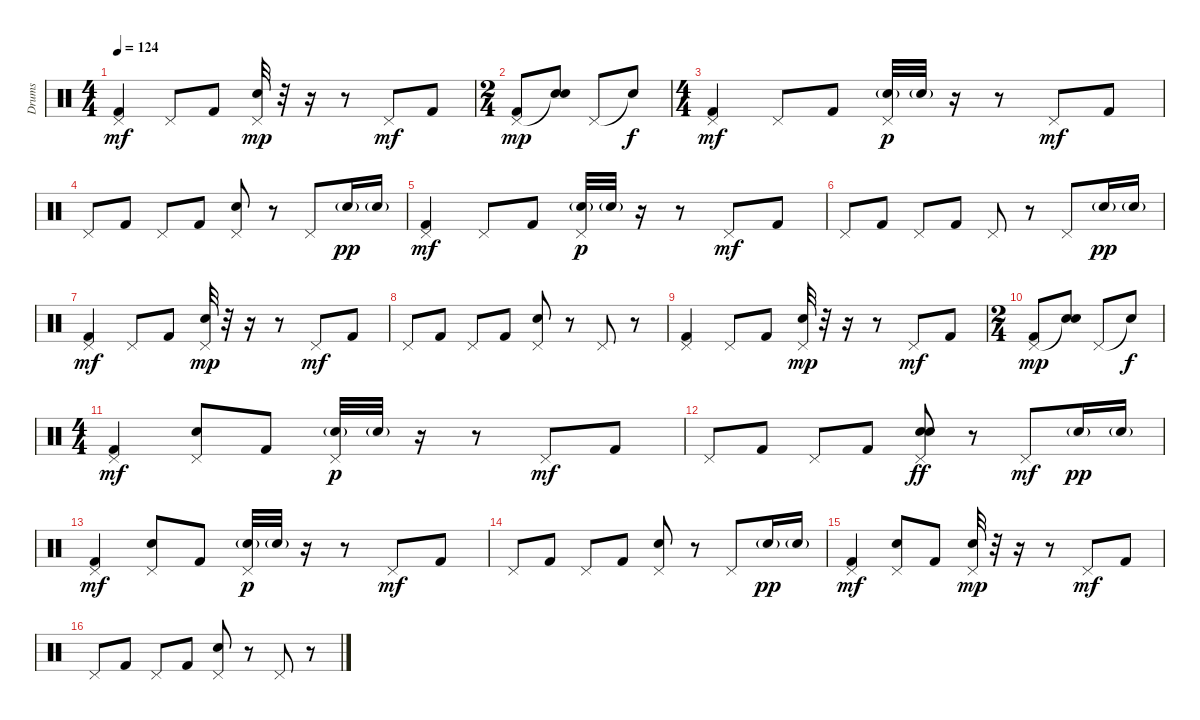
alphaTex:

\track ("Drums" "Drums") {instrument percussion}
\staff {score}
\articulation defaults
\ts (4 4)
\tempo 124
\clef neutral
\ks c
("Pedal Hi-Hat (hit)" "Kick (hit) 2").4{dy mf} "Pedal Hi-Hat (hit)".8 "Kick (hit) 2".8 ("Pedal Hi-Hat (hit)" "Electric Snare (hit)").32{dy mp} r.32 r.16 r.8 "Pedal Hi-Hat (hit)".8{dy mf} "Kick (hit) 2".8 |
\ts (2 4)
("Pedal Hi-Hat (hit)" "Kick (hit) 2").8{dy mp} ("Snare (hit)"{t} "Electric Snare (hit)").8 "Pedal Hi-Hat (hit)".8 "Snare (hit)"{t}.8{dy f} |
\ts (4 4)
("Pedal Hi-Hat (hit)" "Kick (hit) 2").4{dy mf} "Pedal Hi-Hat (hit)".8 "Kick (hit) 2".8 ("Pedal Hi-Hat (hit)" "Electric Snare (hit)"{g}).32{dy p} "Electric Snare (hit)"{g}.32 r.16 r.8 "Pedal Hi-Hat (hit)".8{dy mf} "Kick (hit) 2".8 |
"Pedal Hi-Hat (hit)".8 "Kick (hit) 2".8 "Pedal Hi-Hat (hit)".8 "Kick (hit) 2".8 ("Pedal Hi-Hat (hit)" "Electric Snare (hit)").8 r.8 "Pedal Hi-Hat (hit)".8 "Electric Snare (hit)"{g}.16{dy pp} "Electric Snare (hit)"{g}.16 |
("Pedal Hi-Hat (hit)" "Kick (hit) 2").4{dy mf} "Pedal Hi-Hat (hit)".8 "Kick (hit) 2".8 ("Pedal Hi-Hat (hit)" "Electric Snare (hit)"{g}).32{dy p} "Electric Snare (hit)"{g}.32 r.16 r.8 "Pedal Hi-Hat (hit)".8{dy mf} "Kick (hit) 2".8 |
"Pedal Hi-Hat (hit)".8 "Kick (hit) 2".8 "Pedal Hi-Hat (hit)".8 "Kick (hit) 2".8 "Pedal Hi-Hat (hit)".8 r.8 "Pedal Hi-Hat (hit)".8 "Electric Snare (hit)"{g}.16{dy pp} "Electric Snare (hit)"{g}.16 |
("Pedal Hi-Hat (hit)" "Kick (hit) 2").4{dy mf} "Pedal Hi-Hat (hit)".8 "Kick (hit) 2".8 ("Pedal Hi-Hat (hit)" "Electric Snare (hit)").32{dy mp} r.32 r.16 r.8 "Pedal Hi-Hat (hit)".8{dy mf} "Kick (hit) 2".8 |
"Pedal Hi-Hat (hit)".8 "Kick (hit) 2".8 "Pedal Hi-Hat (hit)".8 "Kick (hit) 2".8 ("Pedal Hi-Hat (hit)" "Electric Snare (hit)").8 r.8 "Pedal Hi-Hat (hit)".8 r.8 |
("Pedal Hi-Hat (hit)" "Kick (hit) 2").4 "Pedal Hi-Hat (hit)".8 "Kick (hit) 2".8 ("Pedal Hi-Hat (hit)" "Electric Snare (hit)").32{dy mp} r.32 r.16 r.8 "Pedal Hi-Hat (hit)".8{dy mf} "Kick (hit) 2".8 |
\ts (2 4)
("Pedal Hi-Hat (hit)" "Kick (hit) 2").8{dy mp} ("Snare (hit)"{t} "Electric Snare (hit)").8 "Pedal Hi-Hat (hit)".8 "Snare (hit)"{t}.8{dy f} |
\ts (4 4)
("Pedal Hi-Hat (hit)" "Kick (hit) 2").4{dy mf} ("Pedal Hi-Hat (hit)" "Electric Snare (hit)").8 "Kick (hit) 2".8 ("Pedal Hi-Hat (hit)" "Electric Snare (hit)"{g}).32{dy p} "Electric Snare (hit)"{g}.32 r.16 r.8 "Pedal Hi-Hat (hit)".8{dy mf} "Kick (hit) 2".8 |
"Pedal Hi-Hat (hit)".8 "Kick (hit) 2".8 "Pedal Hi-Hat (hit)".8 "Kick (hit) 2".8 ("Pedal Hi-Hat (hit)" "Electric Snare (hit)" "Snare (hit) 2").8{dy ff} r.8 "Pedal Hi-Hat (hit)".8{dy mf} "Electric Snare (hit)"{g}.16{dy pp} "Electric Snare (hit)"{g}.16 |
("Pedal Hi-Hat (hit)" "Kick (hit) 2").4{dy mf} ("Pedal Hi-Hat (hit)" "Electric Snare (hit)").8 "Kick (hit) 2".8 ("Pedal Hi-Hat (hit)" "Electric Snare (hit)"{g}).32{dy p} "Electric Snare (hit)"{g}.32 r.16 r.8 "Pedal Hi-Hat (hit)".8{dy mf} "Kick (hit) 2".8 |
"Pedal Hi-Hat (hit)".8 "Kick (hit) 2".8 "Pedal Hi-Hat (hit)".8 "Kick (hit) 2".8 ("Pedal Hi-Hat (hit)" "Electric Snare (hit)").8 r.8 "Pedal Hi-Hat (hit)".8 "Electric Snare (hit)"{g}.16{dy pp} "Electric Snare (hit)"{g}.16 |
("Pedal Hi-Hat (hit)" "Kick (hit) 2").4{dy mf} ("Pedal Hi-Hat (hit)" "Electric Snare (hit)").8 "Kick (hit) 2".8 ("Pedal Hi-Hat (hit)" "Electric Snare (hit)").32{dy mp} r.32 r.16 r.8 "Pedal Hi-Hat (hit)".8{dy mf} "Kick (hit) 2".8 |
"Pedal Hi-Hat (hit)".8 "Kick (hit) 2".8 "Pedal Hi-Hat (hit)".8 "Kick (hit) 2".8 ("Pedal Hi-Hat (hit)" "Electric Snare (hit)").8 r.8 "Pedal Hi-Hat (hit)".8 r.8
